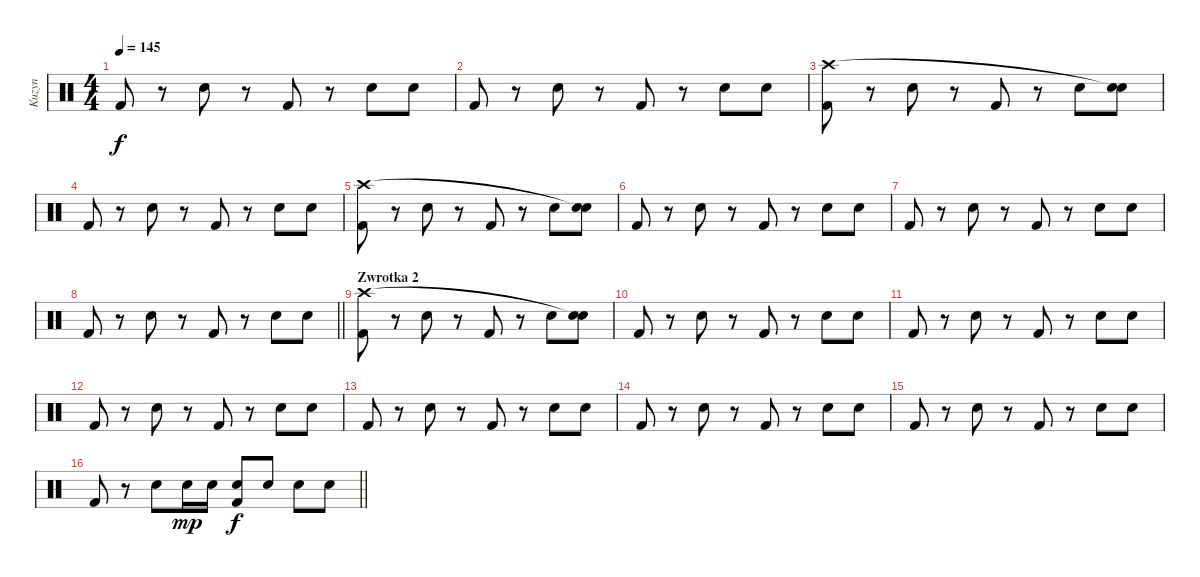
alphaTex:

\track ("Kuzyn" "Kuzyn") {instrument percussion}
\staff {score}
\articulation defaults
\ts (4 4)
\tempo 145
\clef neutral
\ks c "Kick (hit) 2".8{dy f}
r.8 "Snare (hit) 2".8 r.8 "Kick (hit) 2".8 r.8 "Snare (hit) 2".8 "Snare (hit) 2".8 |
"Kick (hit) 2".8 r.8 "Snare (hit) 2".8 r.8 "Kick (hit) 2".8 r.8 "Snare (hit) 2".8 "Snare (hit) 2".8 |
("Kick (hit) 2" "Crash high (hit)").8 r.8 "Snare (hit) 2".8 r.8 "Kick (hit) 2".8 r.8 "Snare (hit) 2".8 ("Snare (hit) 2" "Snare (hit)"{t}).8 |
"Kick (hit) 2".8 r.8 "Snare (hit) 2".8 r.8 "Kick (hit) 2".8 r.8 "Snare (hit) 2".8 "Snare (hit) 2".8 |
("Kick (hit) 2" "Crash high (hit)").8 r.8 "Snare (hit) 2".8 r.8 "Kick (hit) 2".8 r.8 "Snare (hit) 2".8 ("Snare (hit) 2" "Snare (hit)"{t}).8 |
"Kick (hit) 2".8 r.8 "Snare (hit) 2".8 r.8 "Kick (hit) 2".8 r.8 "Snare (hit) 2".8 "Snare (hit) 2".8 |
"Kick (hit) 2".8 r.8 "Snare (hit) 2".8 r.8 "Kick (hit) 2".8 r.8 "Snare (hit) 2".8 "Snare (hit) 2".8 |
\barLineRight lightlight "Kick (hit) 2".8
r.8 "Snare (hit) 2".8 r.8 "Kick (hit) 2".8 r.8 "Snare (hit) 2".8 "Snare (hit) 2".8 |
\section ("" "Zwrotka 2")
("Kick (hit) 2" "Crash high (hit)").8 r.8 "Snare (hit) 2".8 r.8 "Kick (hit) 2".8 r.8 "Snare (hit) 2".8 ("Snare (hit) 2" "Snare (hit)"{t}).8 |
"Kick (hit) 2".8 r.8 "Snare (hit) 2".8 r.8 "Kick (hit) 2".8 r.8 "Snare (hit) 2".8 "Snare (hit) 2".8 |
"Kick (hit) 2".8 r.8 "Snare (hit) 2".8 r.8 "Kick (hit) 2".8 r.8 "Snare (hit) 2".8 "Snare (hit) 2".8 |
"Kick (hit) 2".8 r.8 "Snare (hit) 2".8 r.8 "Kick (hit) 2".8 r.8 "Snare (hit) 2".8 "Snare (hit) 2".8 |
"Kick (hit) 2".8 r.8 "Snare (hit) 2".8 r.8 "Kick (hit) 2".8 r.8 "Snare (hit) 2".8 "Snare (hit) 2".8 |
"Kick (hit) 2".8 r.8 "Snare (hit) 2".8 r.8 "Kick (hit) 2".8 r.8 "Snare (hit) 2".8 "Snare (hit) 2".8 |
"Kick (hit) 2".8 r.8 "Snare (hit) 2".8 r.8 "Kick (hit) 2".8 r.8 "Snare (hit) 2".8 "Snare (hit) 2".8 |
\barLineRight lightlight "Kick (hit) 2".8
r.8 "Snare (hit) 2".8 "Snare (hit) 2".16{dy mp} "Snare (hit) 2".16 ("Snare (hit) 2" "Kick (hit) 2").8{dy f} "Snare (hit) 2".8 "Snare (hit) 2".8 "Snare (hit) 2".8
